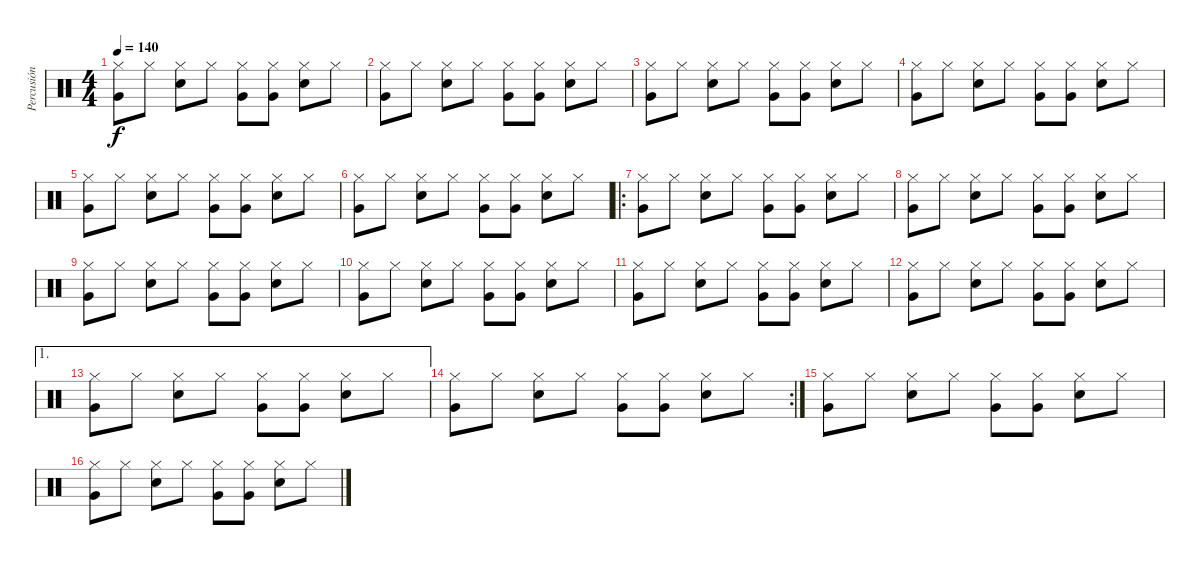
\track ("Percusión" "Percusión") {instrument percussion}
\staff {score}
\articulation defaults
\ts (4 4)
\tempo 140
\clef neutral
\ks c
("Hi-Hat (closed)" "Very Low Tom (hit)").8{dy f} "Hi-Hat (closed)".8 ("Hi-Hat (closed)" "Snare (hit) 2").8 "Hi-Hat (closed)".8 ("Hi-Hat (closed)" "Very Low Tom (hit)").8 ("Hi-Hat (closed)" "Very Low Tom (hit)").8 ("Hi-Hat (closed)" "Snare (hit) 2").8 "Hi-Hat (closed)".8 |
("Hi-Hat (closed)" "Very Low Tom (hit)").8 "Hi-Hat (closed)".8 ("Hi-Hat (closed)" "Snare (hit) 2").8 "Hi-Hat (closed)".8 ("Hi-Hat (closed)" "Very Low Tom (hit)").8 ("Hi-Hat (closed)" "Very Low Tom (hit)").8 ("Hi-Hat (closed)" "Snare (hit) 2").8 "Hi-Hat (closed)".8 |
("Hi-Hat (closed)" "Very Low Tom (hit)").8 "Hi-Hat (closed)".8 ("Hi-Hat (closed)" "Snare (hit) 2").8 "Hi-Hat (closed)".8 ("Hi-Hat (closed)" "Very Low Tom (hit)").8 ("Hi-Hat (closed)" "Very Low Tom (hit)").8 ("Hi-Hat (closed)" "Snare (hit) 2").8 "Hi-Hat (closed)".8 |
("Hi-Hat (closed)" "Very Low Tom (hit)").8 "Hi-Hat (closed)".8 ("Hi-Hat (closed)" "Snare (hit) 2").8 "Hi-Hat (closed)".8 ("Hi-Hat (closed)" "Very Low Tom (hit)").8 ("Hi-Hat (closed)" "Very Low Tom (hit)").8 ("Hi-Hat (closed)" "Snare (hit) 2").8 "Hi-Hat (closed)".8 |
("Hi-Hat (closed)" "Very Low Tom (hit)").8 "Hi-Hat (closed)".8 ("Hi-Hat (closed)" "Snare (hit) 2").8 "Hi-Hat (closed)".8 ("Hi-Hat (closed)" "Very Low Tom (hit)").8 ("Hi-Hat (closed)" "Very Low Tom (hit)").8 ("Hi-Hat (closed)" "Snare (hit) 2").8 "Hi-Hat (closed)".8 |
("Hi-Hat (closed)" "Very Low Tom (hit)").8 "Hi-Hat (closed)".8 ("Hi-Hat (closed)" "Snare (hit) 2").8 "Hi-Hat (closed)".8 ("Hi-Hat (closed)" "Very Low Tom (hit)").8 ("Hi-Hat (closed)" "Very Low Tom (hit)").8 ("Hi-Hat (closed)" "Snare (hit) 2").8 "Hi-Hat (closed)".8 |
\ro
("Hi-Hat (closed)" "Very Low Tom (hit)").8 "Hi-Hat (closed)".8 ("Hi-Hat (closed)" "Snare (hit) 2").8 "Hi-Hat (closed)".8 ("Hi-Hat (closed)" "Very Low Tom (hit)").8 ("Hi-Hat (closed)" "Very Low Tom (hit)").8 ("Hi-Hat (closed)" "Snare (hit) 2").8 "Hi-Hat (closed)".8 |
("Hi-Hat (closed)" "Very Low Tom (hit)").8 "Hi-Hat (closed)".8 ("Hi-Hat (closed)" "Snare (hit) 2").8 "Hi-Hat (closed)".8 ("Hi-Hat (closed)" "Very Low Tom (hit)").8 ("Hi-Hat (closed)" "Very Low Tom (hit)").8 ("Hi-Hat (closed)" "Snare (hit) 2").8 "Hi-Hat (closed)".8 |
("Hi-Hat (closed)" "Very Low Tom (hit)").8 "Hi-Hat (closed)".8 ("Hi-Hat (closed)" "Snare (hit) 2").8 "Hi-Hat (closed)".8 ("Hi-Hat (closed)" "Very Low Tom (hit)").8 ("Hi-Hat (closed)" "Very Low Tom (hit)").8 ("Hi-Hat (closed)" "Snare (hit) 2").8 "Hi-Hat (closed)".8 |
("Hi-Hat (closed)" "Very Low Tom (hit)").8 "Hi-Hat (closed)".8 ("Hi-Hat (closed)" "Snare (hit) 2").8 "Hi-Hat (closed)".8 ("Hi-Hat (closed)" "Very Low Tom (hit)").8 ("Hi-Hat (closed)" "Very Low Tom (hit)").8 ("Hi-Hat (closed)" "Snare (hit) 2").8 "Hi-Hat (closed)".8 |
("Hi-Hat (closed)" "Very Low Tom (hit)").8 "Hi-Hat (closed)".8 ("Hi-Hat (closed)" "Snare (hit) 2").8 "Hi-Hat (closed)".8 ("Hi-Hat (closed)" "Very Low Tom (hit)").8 ("Hi-Hat (closed)" "Very Low Tom (hit)").8 ("Hi-Hat (closed)" "Snare (hit) 2").8 "Hi-Hat (closed)".8 |
("Hi-Hat (closed)" "Very Low Tom (hit)").8 "Hi-Hat (closed)".8 ("Hi-Hat (closed)" "Snare (hit) 2").8 "Hi-Hat (closed)".8 ("Hi-Hat (closed)" "Very Low Tom (hit)").8 ("Hi-Hat (closed)" "Very Low Tom (hit)").8 ("Hi-Hat (closed)" "Snare (hit) 2").8 "Hi-Hat (closed)".8 |
\ae 1
("Hi-Hat (closed)" "Very Low Tom (hit)").8 "Hi-Hat (closed)".8 ("Hi-Hat (closed)" "Snare (hit) 2").8 "Hi-Hat (closed)".8 ("Hi-Hat (closed)" "Very Low Tom (hit)").8 ("Hi-Hat (closed)" "Very Low Tom (hit)").8 ("Hi-Hat (closed)" "Snare (hit) 2").8 "Hi-Hat (closed)".8 |
\rc 2
("Hi-Hat (closed)" "Very Low Tom (hit)").8 "Hi-Hat (closed)".8 ("Hi-Hat (closed)" "Snare (hit) 2").8 "Hi-Hat (closed)".8 ("Hi-Hat (closed)" "Very Low Tom (hit)").8 ("Hi-Hat (closed)" "Very Low Tom (hit)").8 ("Hi-Hat (closed)" "Snare (hit) 2").8 "Hi-Hat (closed)".8 |
("Hi-Hat (closed)" "Very Low Tom (hit)").8 "Hi-Hat (closed)".8 ("Hi-Hat (closed)" "Snare (hit) 2").8 "Hi-Hat (closed)".8 ("Hi-Hat (closed)" "Very Low Tom (hit)").8 ("Hi-Hat (closed)" "Very Low Tom (hit)").8 ("Hi-Hat (closed)" "Snare (hit) 2").8 "Hi-Hat (closed)".8 |
("Hi-Hat (closed)" "Very Low Tom (hit)").8 "Hi-Hat (closed)".8 ("Hi-Hat (closed)" "Snare (hit) 2").8 "Hi-Hat (closed)".8 ("Hi-Hat (closed)" "Very Low Tom (hit)").8 ("Hi-Hat (closed)" "Very Low Tom (hit)").8 ("Hi-Hat (closed)" "Snare (hit) 2").8 "Hi-Hat (closed)".8
